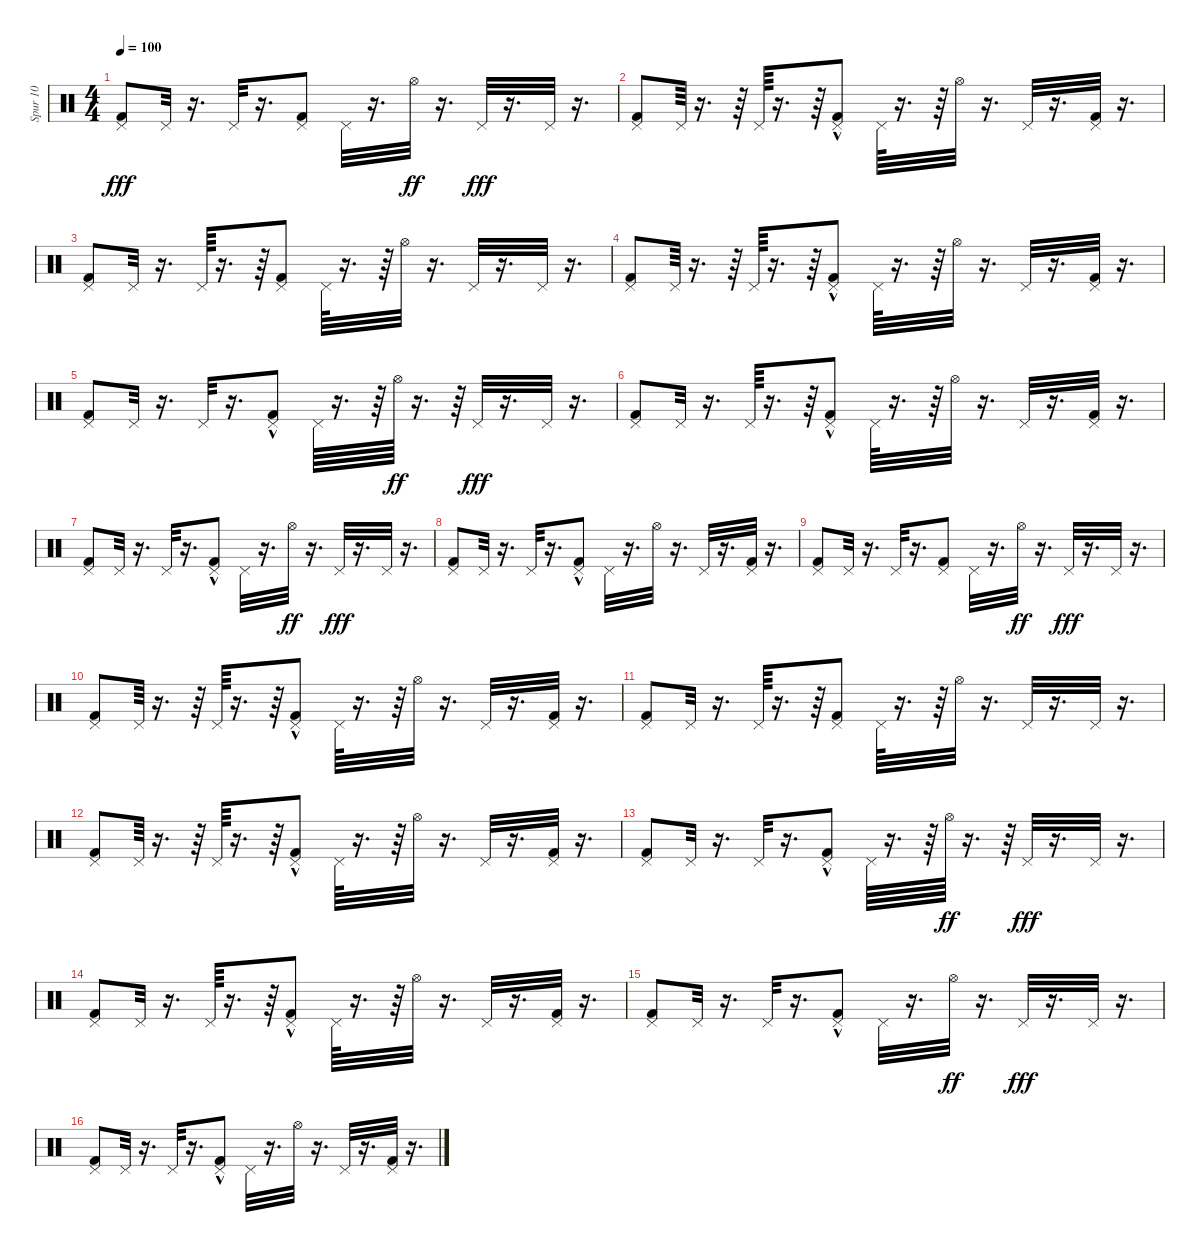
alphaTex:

\track ("Spur 10" "Spur 10") {instrument percussion}
\staff {score}
\articulation defaults
\ts (4 4)
\tempo 100
\clef neutral
\ks c
("Pedal Hi-Hat (hit)" "Kick (hit) 2").8{dy fff} "Pedal Hi-Hat (hit)".32 r.16{d} "Pedal Hi-Hat (hit)".32 r.16{d} ("Pedal Hi-Hat (hit)" "Kick (hit) 2").8 "Pedal Hi-Hat (hit)".32 r.16{d} "Hi-Hat (open)".32{dy ff} r.16{d} "Pedal Hi-Hat (hit)".32{dy fff} r.16{d} "Pedal Hi-Hat (hit)".32 r.16{d} |
("Pedal Hi-Hat (hit)" "Kick (hit) 2").8 "Pedal Hi-Hat (hit)".64 r.16{d} r.64 "Pedal Hi-Hat (hit)".64 r.16{d} r.64 ("Pedal Hi-Hat (hit)" "Kick (hit) 2"{hac}).8 "Pedal Hi-Hat (hit)".64 r.16{d} r.64 "Hi-Hat (open)".32 r.16{d} "Pedal Hi-Hat (hit)".32 r.16{d} ("Pedal Hi-Hat (hit)" "Kick (hit) 2").32 r.16{d} |
("Pedal Hi-Hat (hit)" "Kick (hit) 2").8 "Pedal Hi-Hat (hit)".32 r.16{d} "Pedal Hi-Hat (hit)".64 r.16{d} r.64 ("Pedal Hi-Hat (hit)" "Kick (hit) 2").8 "Pedal Hi-Hat (hit)".64 r.16{d} r.64 "Hi-Hat (open)".32 r.16{d} "Pedal Hi-Hat (hit)".32 r.16{d} "Pedal Hi-Hat (hit)".32 r.16{d} |
("Pedal Hi-Hat (hit)" "Kick (hit) 2").8 "Pedal Hi-Hat (hit)".64 r.16{d} r.64 "Pedal Hi-Hat (hit)".64 r.16{d} r.64 ("Pedal Hi-Hat (hit)" "Kick (hit) 2"{hac}).8 "Pedal Hi-Hat (hit)".64 r.16{d} r.64 "Hi-Hat (open)".32 r.16{d} "Pedal Hi-Hat (hit)".32 r.16{d} ("Pedal Hi-Hat (hit)" "Kick (hit) 2").32 r.16{d} |
("Pedal Hi-Hat (hit)" "Kick (hit) 2").8 "Pedal Hi-Hat (hit)".32 r.16{d} "Pedal Hi-Hat (hit)".32 r.16{d} ("Pedal Hi-Hat (hit)" "Kick (hit) 2"{hac}).8 "Pedal Hi-Hat (hit)".64 r.16{d} r.64 "Hi-Hat (open)".64{dy ff} r.16{d} r.64 "Pedal Hi-Hat (hit)".32{dy fff} r.16{d} "Pedal Hi-Hat (hit)".32 r.16{d} |
("Pedal Hi-Hat (hit)" "Kick (hit) 2").8 "Pedal Hi-Hat (hit)".32 r.16{d} "Pedal Hi-Hat (hit)".64 r.16{d} r.64 ("Pedal Hi-Hat (hit)" "Kick (hit) 2"{hac}).8 "Pedal Hi-Hat (hit)".64 r.16{d} r.64 "Hi-Hat (open)".32 r.16{d} "Pedal Hi-Hat (hit)".32 r.16{d} ("Pedal Hi-Hat (hit)" "Kick (hit) 2").32 r.16{d} |
("Pedal Hi-Hat (hit)" "Kick (hit) 2").8 "Pedal Hi-Hat (hit)".32 r.16{d} "Pedal Hi-Hat (hit)".32 r.16{d} ("Pedal Hi-Hat (hit)" "Kick (hit) 2"{hac}).8 "Pedal Hi-Hat (hit)".32 r.16{d} "Hi-Hat (open)".32{dy ff} r.16{d} "Pedal Hi-Hat (hit)".32{dy fff} r.16{d} "Pedal Hi-Hat (hit)".32 r.16{d} |
("Pedal Hi-Hat (hit)" "Kick (hit) 2").8 "Pedal Hi-Hat (hit)".32 r.16{d} "Pedal Hi-Hat (hit)".32 r.16{d} ("Pedal Hi-Hat (hit)" "Kick (hit) 2"{hac}).8 "Pedal Hi-Hat (hit)".32 r.16{d} "Hi-Hat (open)".32 r.16{d} "Pedal Hi-Hat (hit)".32 r.16{d} ("Pedal Hi-Hat (hit)" "Kick (hit) 2").32 r.16{d} |
("Pedal Hi-Hat (hit)" "Kick (hit) 2").8 "Pedal Hi-Hat (hit)".32 r.16{d} "Pedal Hi-Hat (hit)".32 r.16{d} ("Pedal Hi-Hat (hit)" "Kick (hit) 2").8 "Pedal Hi-Hat (hit)".32 r.16{d} "Hi-Hat (open)".32{dy ff} r.16{d} "Pedal Hi-Hat (hit)".32{dy fff} r.16{d} "Pedal Hi-Hat (hit)".32 r.16{d} |
("Pedal Hi-Hat (hit)" "Kick (hit) 2").8 "Pedal Hi-Hat (hit)".64 r.16{d} r.64 "Pedal Hi-Hat (hit)".64 r.16{d} r.64 ("Pedal Hi-Hat (hit)" "Kick (hit) 2"{hac}).8 "Pedal Hi-Hat (hit)".64 r.16{d} r.64 "Hi-Hat (open)".32 r.16{d} "Pedal Hi-Hat (hit)".32 r.16{d} ("Pedal Hi-Hat (hit)" "Kick (hit) 2").32 r.16{d} |
("Pedal Hi-Hat (hit)" "Kick (hit) 2").8 "Pedal Hi-Hat (hit)".32 r.16{d} "Pedal Hi-Hat (hit)".64 r.16{d} r.64 ("Pedal Hi-Hat (hit)" "Kick (hit) 2").8 "Pedal Hi-Hat (hit)".64 r.16{d} r.64 "Hi-Hat (open)".32 r.16{d} "Pedal Hi-Hat (hit)".32 r.16{d} "Pedal Hi-Hat (hit)".32 r.16{d} |
("Pedal Hi-Hat (hit)" "Kick (hit) 2").8 "Pedal Hi-Hat (hit)".64 r.16{d} r.64 "Pedal Hi-Hat (hit)".64 r.16{d} r.64 ("Pedal Hi-Hat (hit)" "Kick (hit) 2"{hac}).8 "Pedal Hi-Hat (hit)".64 r.16{d} r.64 "Hi-Hat (open)".32 r.16{d} "Pedal Hi-Hat (hit)".32 r.16{d} ("Pedal Hi-Hat (hit)" "Kick (hit) 2").32 r.16{d} |
("Pedal Hi-Hat (hit)" "Kick (hit) 2").8 "Pedal Hi-Hat (hit)".32 r.16{d} "Pedal Hi-Hat (hit)".32 r.16{d} ("Pedal Hi-Hat (hit)" "Kick (hit) 2"{hac}).8 "Pedal Hi-Hat (hit)".64 r.16{d} r.64 "Hi-Hat (open)".64{dy ff} r.16{d} r.64 "Pedal Hi-Hat (hit)".32{dy fff} r.16{d} "Pedal Hi-Hat (hit)".32 r.16{d} |
("Pedal Hi-Hat (hit)" "Kick (hit) 2").8 "Pedal Hi-Hat (hit)".32 r.16{d} "Pedal Hi-Hat (hit)".64 r.16{d} r.64 ("Pedal Hi-Hat (hit)" "Kick (hit) 2"{hac}).8 "Pedal Hi-Hat (hit)".64 r.16{d} r.64 "Hi-Hat (open)".32 r.16{d} "Pedal Hi-Hat (hit)".32 r.16{d} ("Pedal Hi-Hat (hit)" "Kick (hit) 2").32 r.16{d} |
("Pedal Hi-Hat (hit)" "Kick (hit) 2").8 "Pedal Hi-Hat (hit)".32 r.16{d} "Pedal Hi-Hat (hit)".32 r.16{d} ("Pedal Hi-Hat (hit)" "Kick (hit) 2"{hac}).8 "Pedal Hi-Hat (hit)".32 r.16{d} "Hi-Hat (open)".32{dy ff} r.16{d} "Pedal Hi-Hat (hit)".32{dy fff} r.16{d} "Pedal Hi-Hat (hit)".32 r.16{d} |
("Pedal Hi-Hat (hit)" "Kick (hit) 2").8 "Pedal Hi-Hat (hit)".32 r.16{d} "Pedal Hi-Hat (hit)".32 r.16{d} ("Pedal Hi-Hat (hit)" "Kick (hit) 2"{hac}).8 "Pedal Hi-Hat (hit)".32 r.16{d} "Hi-Hat (open)".32 r.16{d} "Pedal Hi-Hat (hit)".32 r.16{d} ("Pedal Hi-Hat (hit)" "Kick (hit) 2").32 r.16{d}
